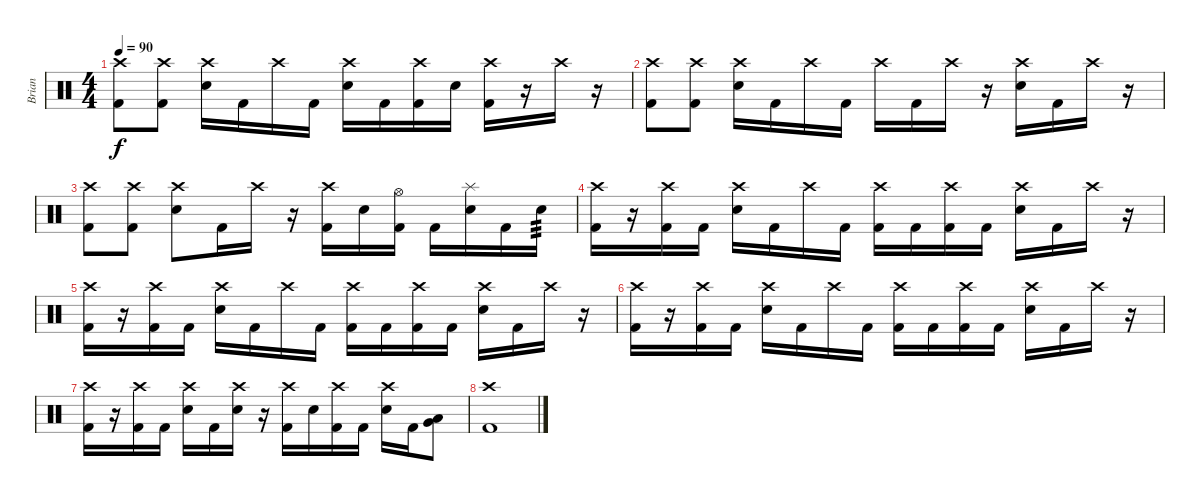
\track ("Brian" "Brian") {instrument percussion}
\staff {score}
\articulation defaults
\ts (4 4)
\tempo 90
\clef neutral
\ks c
("Crash high (hit)" "Kick (hit) 2").8{dy f} ("Crash high (hit)" "Kick (hit) 2").8 ("Crash high (hit)" "Electric Snare (hit)").16 "Kick (hit) 2".16 "Crash high (hit)".16 "Kick (hit) 2".16 ("Crash high (hit)" "Electric Snare (hit)").16 "Kick (hit) 2".16 ("Crash high (hit)" "Kick (hit) 2").16 "Electric Snare (hit)".16 ("Crash high (hit)" "Kick (hit) 2").16 r.16 "Crash high (hit)".16 r.16 |
("Crash high (hit)" "Kick (hit) 2").8 ("Crash high (hit)" "Kick (hit) 2").8 ("Crash high (hit)" "Electric Snare (hit)").16 "Kick (hit) 2".16 "Crash high (hit)".16 "Kick (hit) 2".16 "Crash high (hit)".16 "Kick (hit) 2".16 "Crash high (hit)".16 r.16 ("Crash high (hit)" "Electric Snare (hit)").16 "Kick (hit) 2".16 "Crash high (hit)".16 r.16 |
("Crash high (hit)" "Kick (hit) 2").8 ("Crash high (hit)" "Kick (hit) 2").8 ("Crash high (hit)" "Electric Snare (hit)").8 "Kick (hit) 2".16 "Crash high (hit)".16 r.16 ("Crash high (hit)" "Kick (hit) 2").16 "Electric Snare (hit)".16 ("Hi-Hat (open)" "Kick (hit) 2").16 "Kick (hit) 2".16 ("Splash (hit)" "Electric Snare (hit)").16 "Kick (hit) 2".16 "Electric Snare (hit)".16{tp 3} |
("Crash high (hit)" "Kick (hit) 2").16 r.16 ("Crash high (hit)" "Kick (hit) 2").16 "Kick (hit) 2".16 ("Crash high (hit)" "Electric Snare (hit)").16 "Kick (hit) 2".16 "Crash high (hit)".16 "Kick (hit) 2".16 ("Crash high (hit)" "Kick (hit) 2").16 "Kick (hit) 2".16 ("Crash high (hit)" "Kick (hit) 2").16 "Kick (hit) 2".16 ("Crash high (hit)" "Electric Snare (hit)").16 "Kick (hit) 2".16 "Crash high (hit)".16 r.16 |
("Crash high (hit)" "Kick (hit) 2").16 r.16 ("Crash high (hit)" "Kick (hit) 2").16 "Kick (hit) 2".16 ("Crash high (hit)" "Electric Snare (hit)").16 "Kick (hit) 2".16 "Crash high (hit)".16 "Kick (hit) 2".16 ("Crash high (hit)" "Kick (hit) 2").16 "Kick (hit) 2".16 ("Crash high (hit)" "Kick (hit) 2").16 "Kick (hit) 2".16 ("Crash high (hit)" "Electric Snare (hit)").16 "Kick (hit) 2".16 "Crash high (hit)".16 r.16 |
("Crash high (hit)" "Kick (hit) 2").16 r.16 ("Crash high (hit)" "Kick (hit) 2").16 "Kick (hit) 2".16 ("Crash high (hit)" "Electric Snare (hit)").16 "Kick (hit) 2".16 "Crash high (hit)".16 "Kick (hit) 2".16 ("Crash high (hit)" "Kick (hit) 2").16 "Kick (hit) 2".16 ("Crash high (hit)" "Kick (hit) 2").16 "Kick (hit) 2".16 ("Crash high (hit)" "Electric Snare (hit)").16 "Kick (hit) 2".16 "Crash high (hit)".16 r.16 |
("Crash high (hit)" "Kick (hit) 2").16 r.16 ("Crash high (hit)" "Kick (hit) 2").16 "Kick (hit) 2".16 ("Crash high (hit)" "Electric Snare (hit)").16 "Kick (hit) 2".16 ("Crash high (hit)" "Electric Snare (hit)").16 r.16 ("Crash high (hit)" "Kick (hit) 2").16 "Electric Snare (hit)".16 ("Crash high (hit)" "Kick (hit) 2").16 "Kick (hit) 2".16 ("Crash high (hit)" "Electric Snare (hit)").16 "Kick (hit) 2".16 ("Low Floor Tom (hit)" "Very Low Tom (hit)").8 |
("Crash high (hit)" "Kick (hit) 2").1
